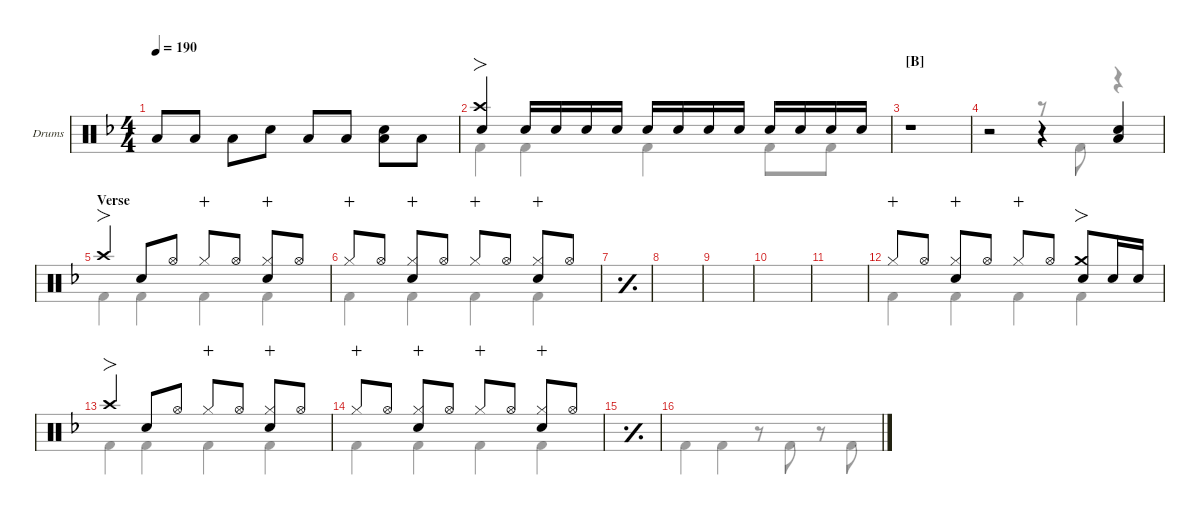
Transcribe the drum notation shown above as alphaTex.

\defaultSystemsLayout 4
\hideDynamics
\bracketExtendMode nobrackets
\firstSystemTrackNameOrientation horizontal
\track ("Drums" "Drums") {defaultSystemsLayout 4 instrument percussion}
\staff {score}
\articulation defaults
\voice
\ts (4 4)
\tempo 190
\clef neutral
\scale
0.24446
\ks dminor "Low Tom (hit)"{acc forcenatural}.8{dy f} "Low Tom (hit)"{acc forcenatural}.8 "Low Tom (hit)"{acc forcenatural}.8 "Snare (hit) 2"{acc forcenatural}.8 "Low Tom (hit)"{acc forcenatural}.8 "Low Tom (hit)"{acc forcenatural}.8
("Low Tom (hit)"{acc forcenatural} "Snare (hit) 2"{acc forcenatural}).8 "Low Tom (hit)"{acc forcenatural}.8 |
\scale
0.244461 ("Crash high (hit)"{acc forcenatural} "Snare (hit) 2"{acc forcenatural}).4{fo} "Snare (hit) 2"{acc forcenatural}.16 "Snare (hit) 2"{acc forcenatural}.16{dy mp} "Snare (hit) 2"{acc forcenatural}.16{dy mf} "Snare (hit) 2"{acc forcenatural}.16{dy mp} "Snare (hit) 2"{acc forcenatural}.16{dy f} "Snare (hit) 2"{acc forcenatural}.16{dy mp} "Snare (hit) 2"{acc forcenatural}.16{dy mf} "Snare (hit) 2"{acc forcenatural}.16{dy mp beam split} "Snare (hit) 2"{acc forcenatural}.16{dy f} "Snare (hit) 2"{acc forcenatural}.16{dy mp} "Snare (hit) 2"{acc forcenatural}.16{dy mf} "Snare (hit) 2"{acc forcenatural}.16{dy mp} |
\section ("B" "")
\scale
0.511079 r.1 |
\scale
0.488921 r.2 r.4 ("Low Tom (hit)"{acc forcenatural} "Snare (hit) 2"{acc forcenatural}).4{dy f} |
\section ("" "Verse")
\scale
0.266618 "Crash high (hit)"{acc forcenatural}.4{fo} "Snare (hit) 2"{acc forcenatural}.8 "Hi-Hat (open)"{acc forcenatural}.8 "Hi-Hat (closed)"{acc forcenatural}.8{dy mp wahc} "Hi-Hat (open)"{acc forcenatural}.8{dy f} ("Hi-Hat (closed)"{acc forcenatural} "Snare (hit) 2"{acc forcenatural}).8{wahc} "Hi-Hat (open)"{acc forcenatural}.8 |
\scale
0.244461 "Hi-Hat (closed)"{acc forcenatural}.8{dy mp wahc} "Hi-Hat (open)"{acc forcenatural}.8{dy f} ("Hi-Hat (closed)"{acc forcenatural} "Snare (hit) 2"{acc forcenatural}).8{wahc} "Hi-Hat (open)"{acc forcenatural}.8 "Hi-Hat (closed)"{acc forcenatural}.8{dy mp wahc} "Hi-Hat (open)"{acc forcenatural}.8{dy f} ("Hi-Hat (closed)"{acc forcenatural} "Snare (hit) 2"{acc forcenatural}).8{wahc} "Hi-Hat (open)"{acc forcenatural}.8 |
\simile simple
\scale
0.24446 |
\scale
0.244461 |
\scale
0.266618 |
\scale
0.244461 |
\scale
0.24446 |
\simile none
\scale
0.244461 "Hi-Hat (closed)"{acc forcenatural}.8{dy mp wahc} "Hi-Hat (open)"{acc forcenatural}.8{dy f} ("Hi-Hat (closed)"{acc forcenatural} "Snare (hit) 2"{acc forcenatural}).8{wahc} "Hi-Hat (open)"{acc forcenatural}.8 "Hi-Hat (closed)"{acc forcenatural}.8{dy mp wahc} "Hi-Hat (open)"{acc forcenatural}.8{dy f beam split} ("Snare (hit) 2"{acc forcenatural} "Crash medium (hit)"{acc forcenatural}).8{fo} "Snare (hit) 2"{acc forcenatural}.16 "Snare (hit) 2"{acc forcenatural}.16 |
\scale
0.266618 "Crash high (hit)"{acc forcenatural}.4{fo} "Snare (hit) 2"{acc forcenatural}.8 "Hi-Hat (open)"{acc forcenatural}.8 "Hi-Hat (closed)"{acc forcenatural}.8{dy mp wahc} "Hi-Hat (open)"{acc forcenatural}.8{dy f} ("Hi-Hat (closed)"{acc forcenatural} "Snare (hit) 2"{acc forcenatural}).8{wahc} "Hi-Hat (open)"{acc forcenatural}.8 |
\scale
0.244461 "Hi-Hat (closed)"{acc forcenatural}.8{dy mp wahc} "Hi-Hat (open)"{acc forcenatural}.8{dy f} ("Hi-Hat (closed)"{acc forcenatural} "Snare (hit) 2"{acc forcenatural}).8{wahc} "Hi-Hat (open)"{acc forcenatural}.8 "Hi-Hat (closed)"{acc forcenatural}.8{dy mp wahc} "Hi-Hat (open)"{acc forcenatural}.8{dy f} ("Hi-Hat (closed)"{acc forcenatural} "Snare (hit) 2"{acc forcenatural}).8{wahc} "Hi-Hat (open)"{acc forcenatural}.8 |
\simile simple
\scale
0.24446 |
\scale
0.244461
\voice
\clef neutral
\ottava regular
\simile none
\scale
0.24446
\ks dminor "Kick (hit) 2"{acc forcenatural}.4{dy f} "Kick (hit) 2"{acc forcenatural}.4
r.8 "Kick (hit) 2"{acc forcenatural}.8 r.8 "Kick (hit) 2"{acc forcenatural}.8 |
\scale
0.244461 "Kick (hit) 2"{acc forcenatural}.4 "Kick (hit) 2"{acc forcenatural}.4 "Kick (hit) 2"{acc forcenatural}.4 "Kick (hit) 2"{acc forcenatural}.8 "Kick (hit) 2"{acc forcenatural}.8 |
\scale
0.511079 r.1 |
\scale
0.488921 r.2 r.8 "Kick (hit) 2"{acc forcenatural}.8 r.4 |
\scale
0.266618 "Kick (hit) 2"{acc forcenatural}.4 "Kick (hit) 2"{acc forcenatural}.4 "Kick (hit) 2"{acc forcenatural}.4 "Kick (hit) 2"{acc forcenatural}.4 |
\scale
0.244461 "Kick (hit) 2"{acc forcenatural}.4 "Kick (hit) 2"{acc forcenatural}.4 "Kick (hit) 2"{acc forcenatural}.4 "Kick (hit) 2"{acc forcenatural}.4 |
\simile simple
\scale
0.24446 |
\scale
0.244461 |
\scale
0.266618 |
\scale
0.244461 |
\scale
0.24446 |
\simile none
\scale
0.244461 "Kick (hit) 2"{acc forcenatural}.4 "Kick (hit) 2"{acc forcenatural}.4 "Kick (hit) 2"{acc forcenatural}.4 "Kick (hit) 2"{acc forcenatural}.4 |
\scale
0.266618 "Kick (hit) 2"{acc forcenatural}.4 "Kick (hit) 2"{acc forcenatural}.4 "Kick (hit) 2"{acc forcenatural}.4 "Kick (hit) 2"{acc forcenatural}.4 |
\scale
0.244461 "Kick (hit) 2"{acc forcenatural}.4 "Kick (hit) 2"{acc forcenatural}.4 "Kick (hit) 2"{acc forcenatural}.4 "Kick (hit) 2"{acc forcenatural}.4 |
\simile simple
\scale
0.24446 |
\scale
0.244461
